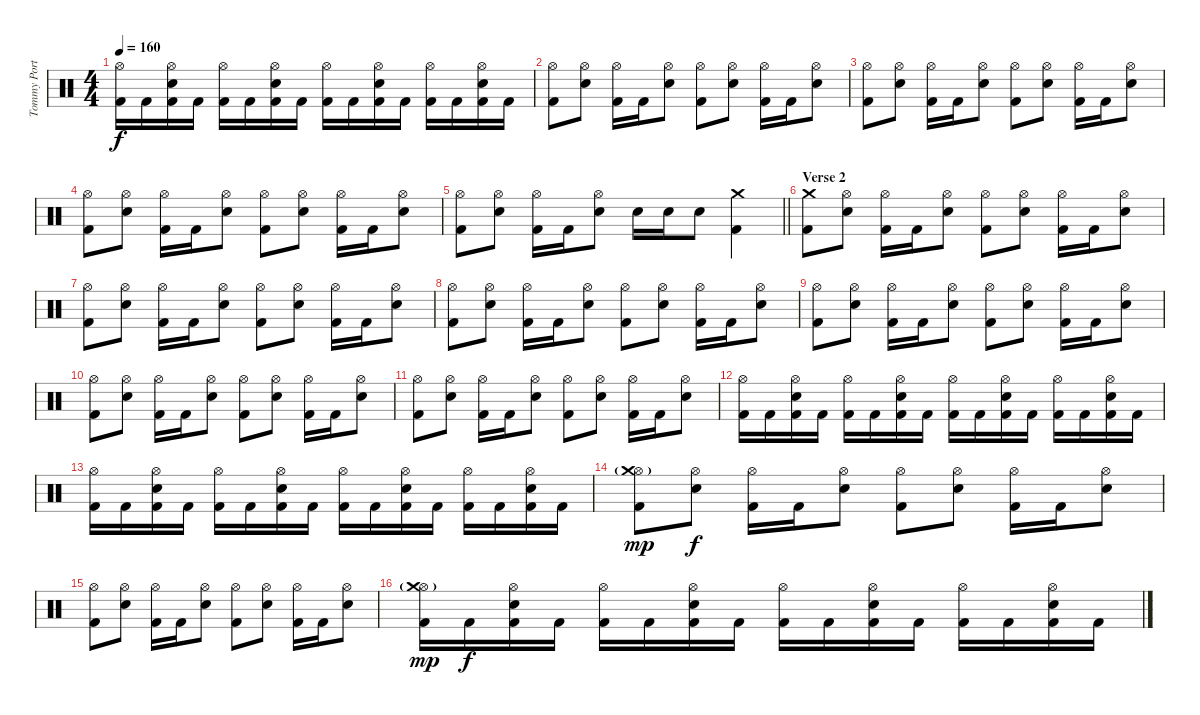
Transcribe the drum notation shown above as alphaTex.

\track ("Tommy Portino" "Tommy Port") {instrument percussion}
\staff {score}
\articulation defaults
\ts (4 4)
\tempo 160
\clef neutral
\ks c
("Hi-Hat (open)" "Kick (hit) 2").16{dy f} "Kick (hit) 2".16 ("Hi-Hat (open)" "Snare (hit) 2" "Kick (hit) 2").16 "Kick (hit) 2".16 ("Hi-Hat (open)" "Kick (hit) 2").16 "Kick (hit) 2".16 ("Hi-Hat (open)" "Snare (hit) 2" "Kick (hit) 2").16 "Kick (hit) 2".16 ("Hi-Hat (open)" "Kick (hit) 2").16 "Kick (hit) 2".16 ("Hi-Hat (open)" "Snare (hit) 2" "Kick (hit) 2").16 "Kick (hit) 2".16 ("Hi-Hat (open)" "Kick (hit) 2").16 "Kick (hit) 2".16 ("Hi-Hat (open)" "Snare (hit) 2" "Kick (hit) 2").16 "Kick (hit) 2".16 |
("Hi-Hat (open)" "Kick (hit) 2").8 ("Hi-Hat (open)" "Snare (hit) 2").8 ("Hi-Hat (open)" "Kick (hit) 2").16 "Kick (hit) 2".16 ("Hi-Hat (open)" "Snare (hit) 2").8 ("Hi-Hat (open)" "Kick (hit) 2").8 ("Hi-Hat (open)" "Snare (hit) 2").8 ("Hi-Hat (open)" "Kick (hit) 2").16 "Kick (hit) 2".16 ("Hi-Hat (open)" "Snare (hit) 2").8 |
("Hi-Hat (open)" "Kick (hit) 2").8 ("Hi-Hat (open)" "Snare (hit) 2").8 ("Hi-Hat (open)" "Kick (hit) 2").16 "Kick (hit) 2".16 ("Hi-Hat (open)" "Snare (hit) 2").8 ("Hi-Hat (open)" "Kick (hit) 2").8 ("Hi-Hat (open)" "Snare (hit) 2").8 ("Hi-Hat (open)" "Kick (hit) 2").16 "Kick (hit) 2".16 ("Hi-Hat (open)" "Snare (hit) 2").8 |
("Hi-Hat (open)" "Kick (hit) 2").8 ("Hi-Hat (open)" "Snare (hit) 2").8 ("Hi-Hat (open)" "Kick (hit) 2").16 "Kick (hit) 2".16 ("Hi-Hat (open)" "Snare (hit) 2").8 ("Hi-Hat (open)" "Kick (hit) 2").8 ("Hi-Hat (open)" "Snare (hit) 2").8 ("Hi-Hat (open)" "Kick (hit) 2").16 "Kick (hit) 2".16 ("Hi-Hat (open)" "Snare (hit) 2").8 |
\barLineRight lightlight
("Hi-Hat (open)" "Kick (hit) 2").8 ("Hi-Hat (open)" "Snare (hit) 2").8 ("Hi-Hat (open)" "Kick (hit) 2").16 "Kick (hit) 2".16 ("Hi-Hat (open)" "Snare (hit) 2").8 "Snare (hit) 2".16 "Snare (hit) 2".16 "Snare (hit) 2".8 ("Crash medium (hit)" "Kick (hit) 2").4 |
\section ("" "Verse 2")
("Crash medium (hit)" "Kick (hit) 2").8 ("Hi-Hat (open)" "Snare (hit) 2").8 ("Hi-Hat (open)" "Kick (hit) 2").16 "Kick (hit) 2".16 ("Hi-Hat (open)" "Snare (hit) 2").8 ("Hi-Hat (open)" "Kick (hit) 2").8 ("Hi-Hat (open)" "Snare (hit) 2").8 ("Hi-Hat (open)" "Kick (hit) 2").16 "Kick (hit) 2".16 ("Hi-Hat (open)" "Snare (hit) 2").8 |
("Hi-Hat (open)" "Kick (hit) 2").8 ("Hi-Hat (open)" "Snare (hit) 2").8 ("Hi-Hat (open)" "Kick (hit) 2").16 "Kick (hit) 2".16 ("Hi-Hat (open)" "Snare (hit) 2").8 ("Hi-Hat (open)" "Kick (hit) 2").8 ("Hi-Hat (open)" "Snare (hit) 2").8 ("Hi-Hat (open)" "Kick (hit) 2").16 "Kick (hit) 2".16 ("Hi-Hat (open)" "Snare (hit) 2").8 |
("Hi-Hat (open)" "Kick (hit) 2").8 ("Hi-Hat (open)" "Snare (hit) 2").8 ("Hi-Hat (open)" "Kick (hit) 2").16 "Kick (hit) 2".16 ("Hi-Hat (open)" "Snare (hit) 2").8 ("Hi-Hat (open)" "Kick (hit) 2").8 ("Hi-Hat (open)" "Snare (hit) 2").8 ("Hi-Hat (open)" "Kick (hit) 2").16 "Kick (hit) 2".16 ("Hi-Hat (open)" "Snare (hit) 2").8 |
("Hi-Hat (open)" "Kick (hit) 2").8 ("Hi-Hat (open)" "Snare (hit) 2").8 ("Hi-Hat (open)" "Kick (hit) 2").16 "Kick (hit) 2".16 ("Hi-Hat (open)" "Snare (hit) 2").8 ("Hi-Hat (open)" "Kick (hit) 2").8 ("Hi-Hat (open)" "Snare (hit) 2").8 ("Hi-Hat (open)" "Kick (hit) 2").16 "Kick (hit) 2".16 ("Hi-Hat (open)" "Snare (hit) 2").8 |
("Hi-Hat (open)" "Kick (hit) 2").8 ("Hi-Hat (open)" "Snare (hit) 2").8 ("Hi-Hat (open)" "Kick (hit) 2").16 "Kick (hit) 2".16 ("Hi-Hat (open)" "Snare (hit) 2").8 ("Hi-Hat (open)" "Kick (hit) 2").8 ("Hi-Hat (open)" "Snare (hit) 2").8 ("Hi-Hat (open)" "Kick (hit) 2").16 "Kick (hit) 2".16 ("Hi-Hat (open)" "Snare (hit) 2").8 |
("Hi-Hat (open)" "Kick (hit) 2").8 ("Hi-Hat (open)" "Snare (hit) 2").8 ("Hi-Hat (open)" "Kick (hit) 2").16 "Kick (hit) 2".16 ("Hi-Hat (open)" "Snare (hit) 2").8 ("Hi-Hat (open)" "Kick (hit) 2").8 ("Hi-Hat (open)" "Snare (hit) 2").8 ("Hi-Hat (open)" "Kick (hit) 2").16 "Kick (hit) 2".16 ("Hi-Hat (open)" "Snare (hit) 2").8 |
("Hi-Hat (open)" "Kick (hit) 2").16 "Kick (hit) 2".16 ("Hi-Hat (open)" "Snare (hit) 2" "Kick (hit) 2").16 "Kick (hit) 2".16 ("Hi-Hat (open)" "Kick (hit) 2").16 "Kick (hit) 2".16 ("Hi-Hat (open)" "Snare (hit) 2" "Kick (hit) 2").16 "Kick (hit) 2".16 ("Hi-Hat (open)" "Kick (hit) 2").16 "Kick (hit) 2".16 ("Hi-Hat (open)" "Snare (hit) 2" "Kick (hit) 2").16 "Kick (hit) 2".16 ("Hi-Hat (open)" "Kick (hit) 2").16 "Kick (hit) 2".16 ("Hi-Hat (open)" "Snare (hit) 2" "Kick (hit) 2").16 "Kick (hit) 2".16 |
("Hi-Hat (open)" "Kick (hit) 2").16 "Kick (hit) 2".16 ("Hi-Hat (open)" "Snare (hit) 2" "Kick (hit) 2").16 "Kick (hit) 2".16 ("Hi-Hat (open)" "Kick (hit) 2").16 "Kick (hit) 2".16 ("Hi-Hat (open)" "Snare (hit) 2" "Kick (hit) 2").16 "Kick (hit) 2".16 ("Hi-Hat (open)" "Kick (hit) 2").16 "Kick (hit) 2".16 ("Hi-Hat (open)" "Snare (hit) 2" "Kick (hit) 2").16 "Kick (hit) 2".16 ("Hi-Hat (open)" "Kick (hit) 2").16 "Kick (hit) 2".16 ("Hi-Hat (open)" "Snare (hit) 2" "Kick (hit) 2").16 "Kick (hit) 2".16 |
("Hi-Hat (open)"{g} "Crash medium (hit)" "Kick (hit) 2").8{dy mp} ("Hi-Hat (open)" "Snare (hit) 2").8{dy f} ("Hi-Hat (open)" "Kick (hit) 2").16 "Kick (hit) 2".16 ("Hi-Hat (open)" "Snare (hit) 2").8 ("Hi-Hat (open)" "Kick (hit) 2").8 ("Hi-Hat (open)" "Snare (hit) 2").8 ("Hi-Hat (open)" "Kick (hit) 2").16 "Kick (hit) 2".16 ("Hi-Hat (open)" "Snare (hit) 2").8 |
("Hi-Hat (open)" "Kick (hit) 2").8 ("Hi-Hat (open)" "Snare (hit) 2").8 ("Hi-Hat (open)" "Kick (hit) 2").16 "Kick (hit) 2".16 ("Hi-Hat (open)" "Snare (hit) 2").8 ("Hi-Hat (open)" "Kick (hit) 2").8 ("Hi-Hat (open)" "Snare (hit) 2").8 ("Hi-Hat (open)" "Kick (hit) 2").16 "Kick (hit) 2".16 ("Hi-Hat (open)" "Snare (hit) 2").8 |
("Hi-Hat (open)"{g} "Crash medium (hit)" "Kick (hit) 2").16{dy mp} "Kick (hit) 2".16{dy f} ("Hi-Hat (open)" "Snare (hit) 2" "Kick (hit) 2").16 "Kick (hit) 2".16 ("Hi-Hat (open)" "Kick (hit) 2").16 "Kick (hit) 2".16 ("Hi-Hat (open)" "Snare (hit) 2" "Kick (hit) 2").16 "Kick (hit) 2".16 ("Hi-Hat (open)" "Kick (hit) 2").16 "Kick (hit) 2".16 ("Hi-Hat (open)" "Snare (hit) 2" "Kick (hit) 2").16 "Kick (hit) 2".16 ("Hi-Hat (open)" "Kick (hit) 2").16 "Kick (hit) 2".16 ("Hi-Hat (open)" "Snare (hit) 2" "Kick (hit) 2").16 "Kick (hit) 2".16
